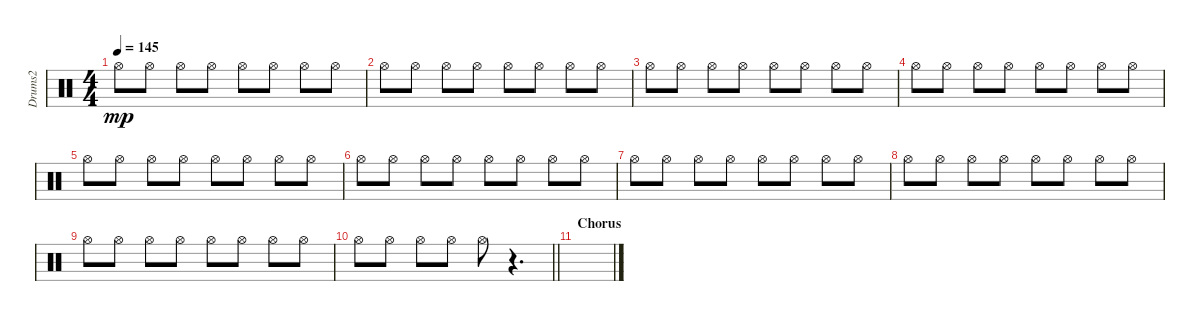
\track ("Drums2" "Drums2") {instrument percussion}
\staff {score}
\articulation defaults
\ts (4 4)
\tempo 145
\clef neutral
\ks c "Hi-Hat (open)".8{dy mp} "Hi-Hat (open)".8 "Hi-Hat (open)".8 "Hi-Hat (open)".8 "Hi-Hat (open)".8 "Hi-Hat (open)".8 "Hi-Hat (open)".8 "Hi-Hat (open)".8
|
"Hi-Hat (open)".8 "Hi-Hat (open)".8 "Hi-Hat (open)".8 "Hi-Hat (open)".8 "Hi-Hat (open)".8 "Hi-Hat (open)".8 "Hi-Hat (open)".8 "Hi-Hat (open)".8 |
"Hi-Hat (open)".8 "Hi-Hat (open)".8 "Hi-Hat (open)".8 "Hi-Hat (open)".8 "Hi-Hat (open)".8 "Hi-Hat (open)".8 "Hi-Hat (open)".8 "Hi-Hat (open)".8 |
"Hi-Hat (open)".8 "Hi-Hat (open)".8 "Hi-Hat (open)".8 "Hi-Hat (open)".8 "Hi-Hat (open)".8 "Hi-Hat (open)".8 "Hi-Hat (open)".8 "Hi-Hat (open)".8 |
"Hi-Hat (open)".8 "Hi-Hat (open)".8 "Hi-Hat (open)".8 "Hi-Hat (open)".8 "Hi-Hat (open)".8 "Hi-Hat (open)".8 "Hi-Hat (open)".8 "Hi-Hat (open)".8 |
"Hi-Hat (open)".8 "Hi-Hat (open)".8 "Hi-Hat (open)".8 "Hi-Hat (open)".8 "Hi-Hat (open)".8 "Hi-Hat (open)".8 "Hi-Hat (open)".8 "Hi-Hat (open)".8 |
"Hi-Hat (open)".8 "Hi-Hat (open)".8 "Hi-Hat (open)".8 "Hi-Hat (open)".8 "Hi-Hat (open)".8 "Hi-Hat (open)".8 "Hi-Hat (open)".8 "Hi-Hat (open)".8 |
"Hi-Hat (open)".8 "Hi-Hat (open)".8 "Hi-Hat (open)".8 "Hi-Hat (open)".8 "Hi-Hat (open)".8 "Hi-Hat (open)".8 "Hi-Hat (open)".8 "Hi-Hat (open)".8 |
"Hi-Hat (open)".8 "Hi-Hat (open)".8 "Hi-Hat (open)".8 "Hi-Hat (open)".8 "Hi-Hat (open)".8 "Hi-Hat (open)".8 "Hi-Hat (open)".8 "Hi-Hat (open)".8 |
\barLineRight lightlight "Hi-Hat (open)".8 "Hi-Hat (open)".8 "Hi-Hat (open)".8 "Hi-Hat (open)".8 "Hi-Hat (open)".8
r.4{d} |
\section ("" "Chorus")
